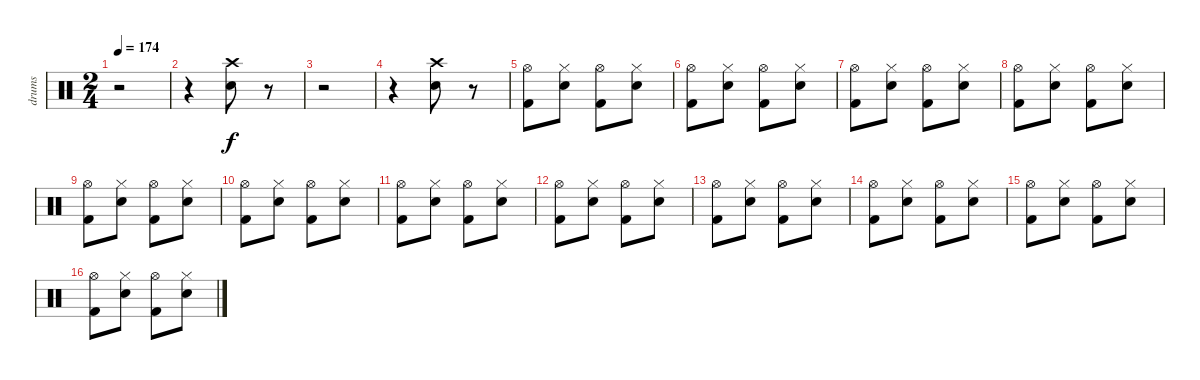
\track ("drums" "drums") {instrument percussion}
\staff {score}
\articulation defaults
\ts (2 4)
\tempo 174
\clef neutral
\ks c
r.2{dy f} |
r.4 ("Snare (hit) 2" "Crash high (hit)").8 r.8 |
r.2 |
r.4 ("Crash high (hit)" "Snare (hit) 2").8 r.8 |
("Kick (hit) 2" "Hi-Hat (open)").8 ("Snare (hit) 2" "Hi-Hat (closed)").8 ("Kick (hit) 2" "Hi-Hat (open)").8 ("Snare (hit) 2" "Hi-Hat (closed)").8 |
("Kick (hit) 2" "Hi-Hat (open)").8 ("Snare (hit) 2" "Hi-Hat (closed)").8 ("Kick (hit) 2" "Hi-Hat (open)").8 ("Snare (hit) 2" "Hi-Hat (closed)").8 |
("Kick (hit) 2" "Hi-Hat (open)").8 ("Snare (hit) 2" "Hi-Hat (closed)").8 ("Kick (hit) 2" "Hi-Hat (open)").8 ("Snare (hit) 2" "Hi-Hat (closed)").8 |
("Kick (hit) 2" "Hi-Hat (open)").8 ("Snare (hit) 2" "Hi-Hat (closed)").8 ("Kick (hit) 2" "Hi-Hat (open)").8 ("Snare (hit) 2" "Hi-Hat (closed)").8 |
("Hi-Hat (open)" "Kick (hit) 2").8 ("Snare (hit) 2" "Hi-Hat (closed)").8 ("Kick (hit) 2" "Hi-Hat (open)").8 ("Snare (hit) 2" "Hi-Hat (closed)").8 |
("Kick (hit) 2" "Hi-Hat (open)").8 ("Snare (hit) 2" "Hi-Hat (closed)").8 ("Kick (hit) 2" "Hi-Hat (open)").8 ("Snare (hit) 2" "Hi-Hat (closed)").8 |
("Kick (hit) 2" "Hi-Hat (open)").8 ("Snare (hit) 2" "Hi-Hat (closed)").8 ("Kick (hit) 2" "Hi-Hat (open)").8 ("Snare (hit) 2" "Hi-Hat (closed)").8 |
("Kick (hit) 2" "Hi-Hat (open)").8 ("Snare (hit) 2" "Hi-Hat (closed)").8 ("Kick (hit) 2" "Hi-Hat (open)").8 ("Snare (hit) 2" "Hi-Hat (closed)").8 |
("Hi-Hat (open)" "Kick (hit) 2").8 ("Snare (hit) 2" "Hi-Hat (closed)").8 ("Kick (hit) 2" "Hi-Hat (open)").8 ("Snare (hit) 2" "Hi-Hat (closed)").8 |
("Kick (hit) 2" "Hi-Hat (open)").8 ("Snare (hit) 2" "Hi-Hat (closed)").8 ("Kick (hit) 2" "Hi-Hat (open)").8 ("Snare (hit) 2" "Hi-Hat (closed)").8 |
("Kick (hit) 2" "Hi-Hat (open)").8 ("Snare (hit) 2" "Hi-Hat (closed)").8 ("Kick (hit) 2" "Hi-Hat (open)").8 ("Snare (hit) 2" "Hi-Hat (closed)").8 |
("Kick (hit) 2" "Hi-Hat (open)").8 ("Snare (hit) 2" "Hi-Hat (closed)").8 ("Kick (hit) 2" "Hi-Hat (open)").8 ("Snare (hit) 2" "Hi-Hat (closed)").8
